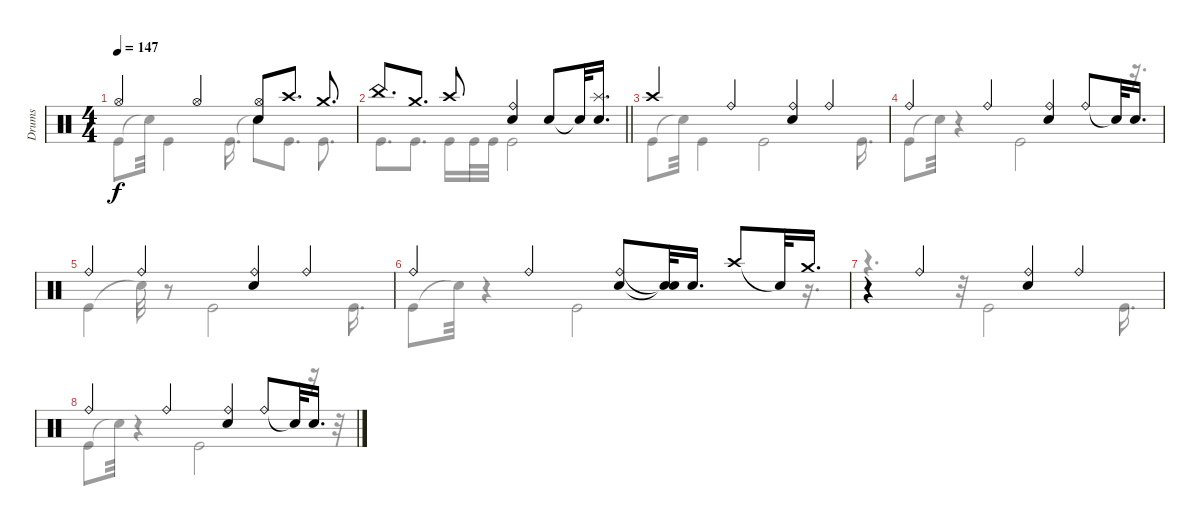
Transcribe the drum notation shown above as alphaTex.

\track ("Drums" "Drums") {instrument percussion}
\staff
\articulation defaults
\voice
\ts (4 4)
\tempo 147
\clef neutral
\ks c "Hi-Hat (open)".4{dy f} "Hi-Hat (open)".4
("Hi-Hat (open)" "Electric Snare (hit)").8 "Crash high (hit)".8{d} "Crash medium (hit)".8{d} |
\barLineRight lightlight "China (hit)".8{d} "Crash medium (hit)".8{d} "Crash high (hit)".8
("Ride (bell)" "Electric Snare (hit)").4 "Electric Snare (hit)".8 "Snare (hit)"{t}.32 ("Splash (hit)" "Electric Snare (hit)").16{d} |
\section ("" "")
"Crash high (hit)".4 "Ride (bell)".4 ("Ride (bell)" "Electric Snare (hit)").4 "Ride (bell)".4 |
"Ride (bell)".4 "Ride (bell)".4 ("Ride (bell)" "Electric Snare (hit)").4 "Ride (bell)".8 "Snare (hit)"{t}.32 "Electric Snare (hit)".16{d} |
"Ride (bell)".4 "Ride (bell)".4 ("Ride (bell)" "Electric Snare (hit)").4 "Ride (bell)".4 |
"Ride (bell)".4 "Ride (bell)".4 ("Ride (bell)" "Electric Snare (hit)").8 ("Snare (hit)"{t} "Snare (hit)"{t}).32 "Electric Snare (hit)".16{d} "Crash high (hit)".8 "Snare (hit)"{t}.32 "Crash medium (hit)".16{d} |
r.4 "Ride (bell)".4 ("Ride (bell)" "Electric Snare (hit)").4 "Ride (bell)".4 |
"Ride (bell)".4 "Ride (bell)".4 ("Ride (bell)" "Electric Snare (hit)").4 "Ride (bell)".8 "Snare (hit)"{t}.32 "Electric Snare (hit)".16{d} |
|
|
|
|
|
|
|
\voice
\clef neutral
\ottava regular
\simile none
\ks c "Kick (hit)".8{dy f} "Snare (hit)"{t}.32 "Kick (hit)".4 "Kick (hit)".16{d} "Snare (hit)"{t}.8 "Kick (hit)".8{d} "Kick (hit)".8{d}
|
\barLineRight lightlight "Kick (hit)".8{d} "Kick (hit)".8{d} "Kick (hit)".16 "Kick (hit)".32 "Kick (hit)".32 "Kick (hit)".2
|
"Kick (hit)".8 "Snare (hit)"{t}.32 "Kick (hit)".4 "Kick (hit)".2 "Kick (hit)".16{d} |
"Kick (hit)".8 "Snare (hit)"{t}.32 r.4 "Kick (hit)".2 r.16{d} |
"Kick (hit)".4 "Snare (hit)"{t}.32 r.8 "Kick (hit)".2 "Kick (hit)".16{d} |
"Kick (hit)".8 "Snare (hit)"{t}.32 r.4 "Kick (hit)".2 r.16{d} |
r.4{d} r.32 "Kick (hit)".2 "Kick (hit)".16{d} |
"Kick (hit)".8 "Snare (hit)"{t}.32 r.4 "Kick (hit)".2 r.16 r.32 |
|
|
|
|
|
|
|
